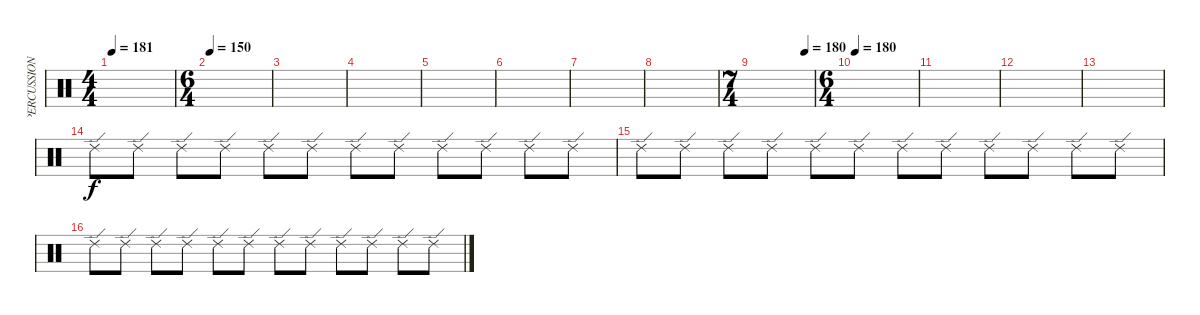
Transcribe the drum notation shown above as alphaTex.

\track ("PERCUSSION" "PERCUSSION") {instrument percussion}
\staff {score}
\articulation defaults
\ts (4 4)
\tempo 181
\clef neutral
\ks c
|
\ts (6 4)
\tempo 150
|
|
|
|
|
|
|
\ts (7 4)
\tempo (180 0.8571428571428571)
|
\ts (6 4)
\tempo 180
|
|
|
|
"Ride (edge) 2".8 "Ride (edge) 2".8 "Ride (edge) 2".8 "Ride (edge) 2".8 "Ride (edge) 2".8 "Ride (edge) 2".8 "Ride (edge) 2".8 "Ride (edge) 2".8 "Ride (edge) 2".8 "Ride (edge) 2".8 "Ride (edge) 2".8 "Ride (edge) 2".8 |
"Ride (edge) 2".8 "Ride (edge) 2".8 "Ride (edge) 2".8 "Ride (edge) 2".8 "Ride (edge) 2".8 "Ride (edge) 2".8 "Ride (edge) 2".8 "Ride (edge) 2".8 "Ride (edge) 2".8 "Ride (edge) 2".8 "Ride (edge) 2".8 "Ride (edge) 2".8 |
"Ride (edge) 2".8 "Ride (edge) 2".8 "Ride (edge) 2".8 "Ride (edge) 2".8 "Ride (edge) 2".8 "Ride (edge) 2".8 "Ride (edge) 2".8 "Ride (edge) 2".8 "Ride (edge) 2".8 "Ride (edge) 2".8 "Ride (edge) 2".8 "Ride (edge) 2".8
